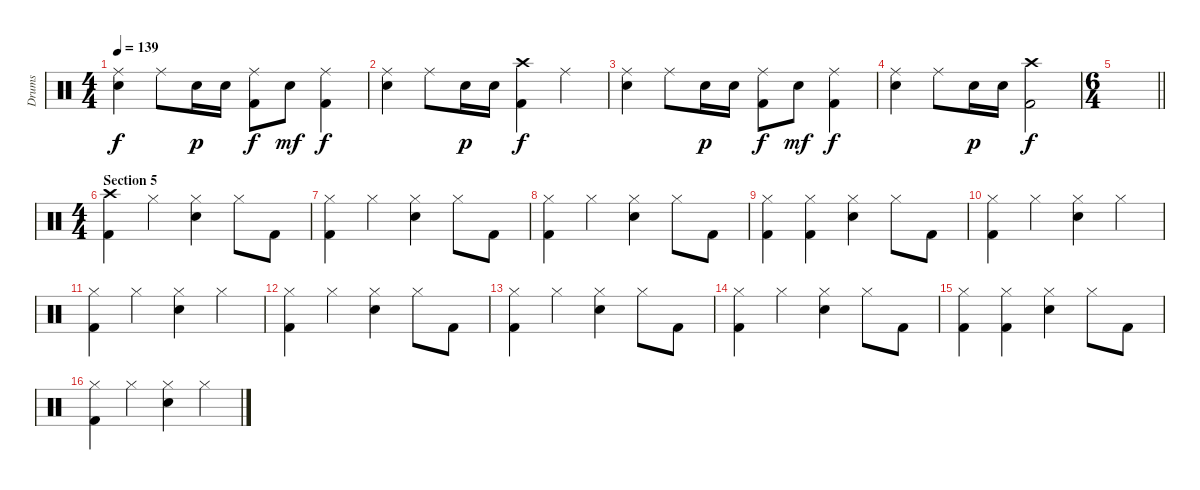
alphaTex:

\track ("Drums" "Drums") {instrument percussion}
\staff {score}
\articulation defaults
\ts (4 4)
\tempo 139
\clef neutral
\ks c
("Ride (middle)" "Electric Snare (hit)").4{dy f} "Ride (middle)".8 "Electric Snare (hit)".16{dy p} "Electric Snare (hit)".16 ("Ride (middle)" "Kick (hit) 2").8{dy f} "Electric Snare (hit)".8{dy mf} ("Ride (middle)" "Kick (hit) 2").4{dy f} |
("Ride (middle)" "Electric Snare (hit)").4 "Ride (middle)".8 "Electric Snare (hit)".16{dy p} "Electric Snare (hit)".16 ("Crash high (hit)" "Kick (hit) 2").4{dy f} "Ride (middle)".4 |
("Ride (middle)" "Electric Snare (hit)").4 "Ride (middle)".8 "Electric Snare (hit)".16{dy p} "Electric Snare (hit)".16 ("Ride (middle)" "Kick (hit) 2").8{dy f} "Electric Snare (hit)".8{dy mf} ("Ride (middle)" "Kick (hit) 2").4{dy f} |
("Ride (middle)" "Electric Snare (hit)").4 "Ride (middle)".8 "Electric Snare (hit)".16{dy p} "Electric Snare (hit)".16 ("Crash high (hit)" "Kick (hit) 2").2{dy f} |
\ts (6 4)
\barLineRight lightlight
|
\ts (4 4)
\section ("" "Section 5")
("Crash high (hit)" "Kick (hit) 2").4 "Hi-Hat (closed)".4 ("Hi-Hat (closed)" "Electric Snare (hit)").4 "Hi-Hat (closed)".8 "Kick (hit) 2".8 |
("Hi-Hat (closed)" "Kick (hit) 2").4 "Hi-Hat (closed)".4 ("Hi-Hat (closed)" "Electric Snare (hit)").4 "Hi-Hat (closed)".8 "Kick (hit) 2".8 |
("Hi-Hat (closed)" "Kick (hit) 2").4 "Hi-Hat (closed)".4 ("Hi-Hat (closed)" "Electric Snare (hit)").4 "Hi-Hat (closed)".8 "Kick (hit) 2".8 |
("Hi-Hat (closed)" "Kick (hit) 2").4 ("Hi-Hat (closed)" "Kick (hit) 2").4 ("Hi-Hat (closed)" "Electric Snare (hit)").4 "Hi-Hat (closed)".8 "Kick (hit) 2".8 |
("Hi-Hat (closed)" "Kick (hit) 2").4 "Hi-Hat (closed)".4 ("Hi-Hat (closed)" "Electric Snare (hit)").4 "Hi-Hat (closed)".4 |
("Hi-Hat (closed)" "Kick (hit) 2").4 "Hi-Hat (closed)".4 ("Hi-Hat (closed)" "Electric Snare (hit)").4 "Hi-Hat (closed)".4 |
("Hi-Hat (closed)" "Kick (hit) 2").4 "Hi-Hat (closed)".4 ("Hi-Hat (closed)" "Electric Snare (hit)").4 "Hi-Hat (closed)".8 "Kick (hit) 2".8 |
("Hi-Hat (closed)" "Kick (hit) 2").4 "Hi-Hat (closed)".4 ("Hi-Hat (closed)" "Electric Snare (hit)").4 "Hi-Hat (closed)".8 "Kick (hit) 2".8 |
("Hi-Hat (closed)" "Kick (hit) 2").4 "Hi-Hat (closed)".4 ("Hi-Hat (closed)" "Electric Snare (hit)").4 "Hi-Hat (closed)".8 "Kick (hit) 2".8 |
("Hi-Hat (closed)" "Kick (hit) 2").4 ("Hi-Hat (closed)" "Kick (hit) 2").4 ("Hi-Hat (closed)" "Electric Snare (hit)").4 "Hi-Hat (closed)".8 "Kick (hit) 2".8 |
("Hi-Hat (closed)" "Kick (hit) 2").4 "Hi-Hat (closed)".4 ("Hi-Hat (closed)" "Electric Snare (hit)").4 "Hi-Hat (closed)".4
